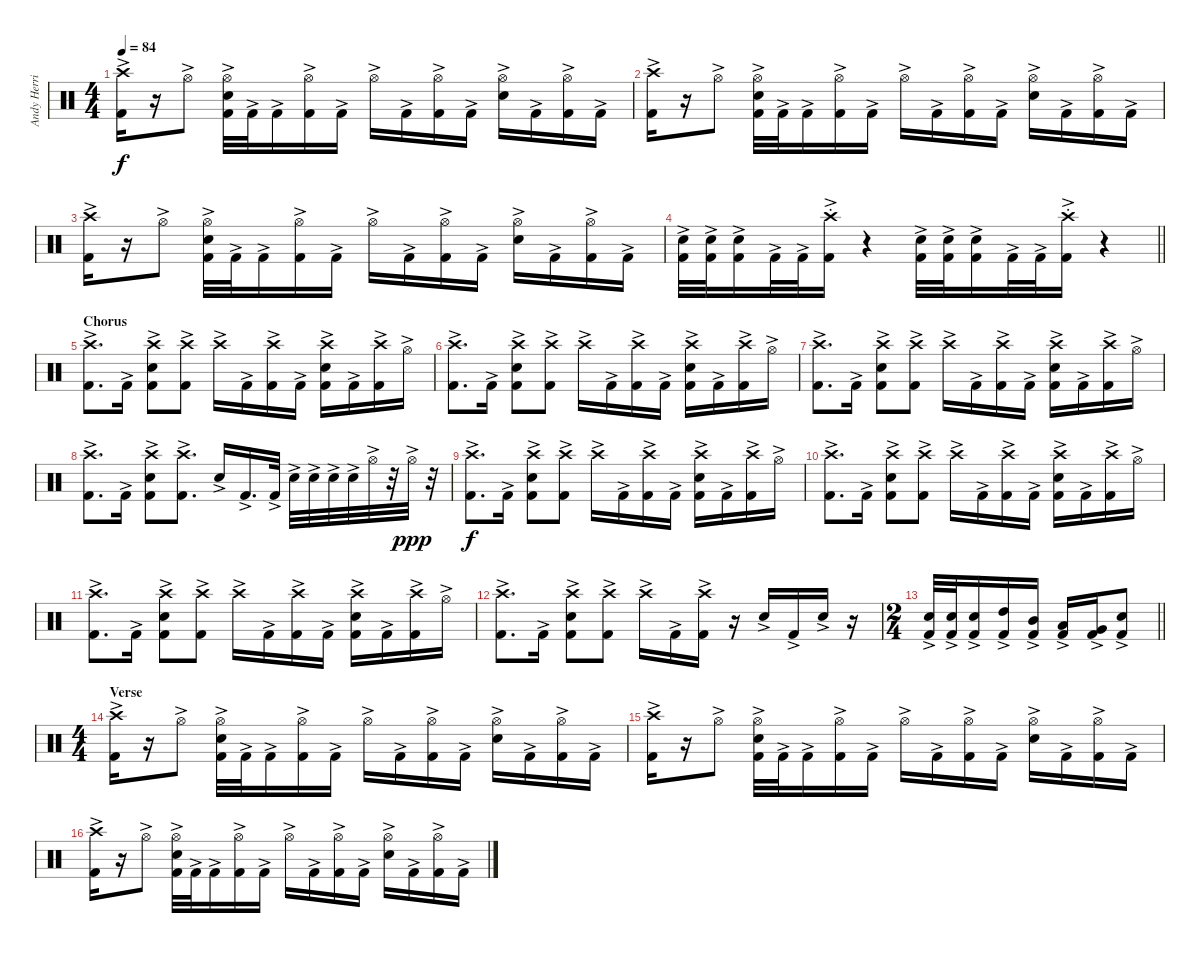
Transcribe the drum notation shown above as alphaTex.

\track ("Andy Herrick" "Andy Herri") {instrument percussion}
\staff {score}
\articulation defaults
\ts (4 4)
\tempo 84
\clef neutral
\ks c
("Crash high (hit)"{ac} "Kick (hit) 2"{ac}).16{dy f} r.16 "Hi-Hat (open)"{ac}.8 ("Hi-Hat (open)"{ac} "Electric Snare (hit)"{ac} "Kick (hit) 2"{ac}).32 "Kick (hit) 2"{ac}.32 "Kick (hit) 2"{ac}.16 ("Hi-Hat (open)"{ac} "Kick (hit) 2"{ac}).16 "Kick (hit) 2"{ac}.16 "Hi-Hat (open)"{ac}.16 "Kick (hit) 2"{ac}.16 ("Hi-Hat (open)"{ac} "Kick (hit) 2"{ac}).16 "Kick (hit) 2"{ac}.16 ("Hi-Hat (open)"{ac} "Electric Snare (hit)"{ac}).16 "Kick (hit) 2"{ac}.16 ("Hi-Hat (open)"{ac} "Kick (hit) 2"{ac}).16 "Kick (hit) 2"{ac}.16 |
("Crash high (hit)"{ac} "Kick (hit) 2"{ac}).16 r.16 "Hi-Hat (open)"{ac}.8 ("Hi-Hat (open)"{ac} "Electric Snare (hit)"{ac} "Kick (hit) 2"{ac}).32 "Kick (hit) 2"{ac}.32 "Kick (hit) 2"{ac}.16 ("Hi-Hat (open)"{ac} "Kick (hit) 2"{ac}).16 "Kick (hit) 2"{ac}.16 "Hi-Hat (open)"{ac}.16 "Kick (hit) 2"{ac}.16 ("Hi-Hat (open)"{ac} "Kick (hit) 2"{ac}).16 "Kick (hit) 2"{ac}.16 ("Hi-Hat (open)"{ac} "Electric Snare (hit)"{ac}).16 "Kick (hit) 2"{ac}.16 ("Hi-Hat (open)"{ac} "Kick (hit) 2"{ac}).16 "Kick (hit) 2"{ac}.16 |
("Crash high (hit)"{ac} "Kick (hit) 2"{ac}).16 r.16 "Hi-Hat (open)"{ac}.8 ("Hi-Hat (open)"{ac} "Electric Snare (hit)"{ac} "Kick (hit) 2"{ac}).32 "Kick (hit) 2"{ac}.32 "Kick (hit) 2"{ac}.16 ("Hi-Hat (open)"{ac} "Kick (hit) 2"{ac}).16 "Kick (hit) 2"{ac}.16 "Hi-Hat (open)"{ac}.16 "Kick (hit) 2"{ac}.16 ("Hi-Hat (open)"{ac} "Kick (hit) 2"{ac}).16 "Kick (hit) 2"{ac}.16 ("Hi-Hat (open)"{ac} "Electric Snare (hit)"{ac}).16 "Kick (hit) 2"{ac}.16 ("Hi-Hat (open)"{ac} "Kick (hit) 2"{ac}).16 "Kick (hit) 2"{ac}.16 |
\barLineRight lightlight
("Electric Snare (hit)"{ac} "Kick (hit) 2"{ac}).32 ("Electric Snare (hit)"{ac} "Kick (hit) 2"{ac}).32 ("Electric Snare (hit)"{ac} "Kick (hit) 2"{ac}).16 "Kick (hit) 2"{ac}.32 "Kick (hit) 2"{ac}.32 ("Crash high (hit)"{ac st} "Kick (hit) 2"{ac}).16 r.4 ("Electric Snare (hit)"{ac} "Kick (hit) 2"{ac}).32 ("Electric Snare (hit)"{ac} "Kick (hit) 2"{ac}).32 ("Electric Snare (hit)"{ac} "Kick (hit) 2"{ac}).16 "Kick (hit) 2"{ac}.32 "Kick (hit) 2"{ac}.32 ("Crash high (hit)"{ac st} "Kick (hit) 2"{ac}).16 r.4 |
\section ("" "Chorus")
("Crash high (hit)"{ac} "Kick (hit) 2"{ac}).8{d} "Kick (hit) 2"{ac}.16 ("Crash high (hit)"{ac} "Electric Snare (hit)"{ac} "Kick (hit) 2"{ac}).8 ("Crash high (hit)"{ac} "Kick (hit) 2"{ac}).8 "Crash high (hit)"{ac}.16 "Kick (hit) 2"{ac}.16 ("Crash high (hit)"{ac} "Kick (hit) 2"{ac}).16 "Kick (hit) 2"{ac}.16 ("Crash high (hit)"{ac} "Electric Snare (hit)"{ac} "Kick (hit) 2"{ac}).16 "Kick (hit) 2"{ac}.16 ("Crash high (hit)"{ac} "Kick (hit) 2"{ac}).16 "Hi-Hat (open)"{ac}.16 |
("Crash high (hit)"{ac} "Kick (hit) 2"{ac}).8{d} "Kick (hit) 2"{ac}.16 ("Crash high (hit)"{ac} "Electric Snare (hit)"{ac} "Kick (hit) 2"{ac}).8 ("Crash high (hit)"{ac} "Kick (hit) 2"{ac}).8 "Crash high (hit)"{ac}.16 "Kick (hit) 2"{ac}.16 ("Crash high (hit)"{ac} "Kick (hit) 2"{ac}).16 "Kick (hit) 2"{ac}.16 ("Crash high (hit)"{ac} "Electric Snare (hit)"{ac} "Kick (hit) 2"{ac}).16 "Kick (hit) 2"{ac}.16 ("Crash high (hit)"{ac} "Kick (hit) 2"{ac}).16 "Hi-Hat (open)"{ac}.16 |
("Crash high (hit)"{ac} "Kick (hit) 2"{ac}).8{d} "Kick (hit) 2"{ac}.16 ("Crash high (hit)"{ac} "Electric Snare (hit)"{ac} "Kick (hit) 2"{ac}).8 ("Crash high (hit)"{ac} "Kick (hit) 2"{ac}).8 "Crash high (hit)"{ac}.16 "Kick (hit) 2"{ac}.16 ("Crash high (hit)"{ac} "Kick (hit) 2"{ac}).16 "Kick (hit) 2"{ac}.16 ("Crash high (hit)"{ac} "Electric Snare (hit)"{ac} "Kick (hit) 2"{ac}).16 "Kick (hit) 2"{ac}.16 ("Crash high (hit)"{ac} "Kick (hit) 2"{ac}).16 "Hi-Hat (open)"{ac}.16 |
("Crash high (hit)"{ac} "Kick (hit) 2"{ac}).8{d} "Kick (hit) 2"{ac}.16 ("Crash high (hit)"{ac} "Electric Snare (hit)"{ac} "Kick (hit) 2"{ac}).8 ("Crash high (hit)"{ac} "Kick (hit) 2"{ac}).8{d} "Electric Snare (hit)"{ac}.16 "Kick (hit) 2"{ac}.16{d} "Kick (hit) 2"{ac}.32 "Electric Snare (hit)"{ac}.32 "Electric Snare (hit)"{ac}.32 "Electric Snare (hit)"{ac}.32 "Electric Snare (hit)"{ac}.32 "Hi-Hat (open)"{ac}.32 r.32 "Hi-Hat (open)"{ac}.32{dy ppp} r.32 |
("Crash high (hit)"{ac} "Kick (hit) 2"{ac}).8{d dy f} "Kick (hit) 2"{ac}.16 ("Crash high (hit)"{ac} "Electric Snare (hit)"{ac} "Kick (hit) 2"{ac}).8 ("Crash high (hit)"{ac} "Kick (hit) 2"{ac}).8 "Crash high (hit)"{ac}.16 "Kick (hit) 2"{ac}.16 ("Crash high (hit)"{ac} "Kick (hit) 2"{ac}).16 "Kick (hit) 2"{ac}.16 ("Crash high (hit)"{ac} "Electric Snare (hit)"{ac} "Kick (hit) 2"{ac}).16 "Kick (hit) 2"{ac}.16 ("Crash high (hit)"{ac} "Kick (hit) 2"{ac}).16 "Hi-Hat (open)"{ac}.16 |
("Crash high (hit)"{ac} "Kick (hit) 2"{ac}).8{d} "Kick (hit) 2"{ac}.16 ("Crash high (hit)"{ac} "Electric Snare (hit)"{ac} "Kick (hit) 2"{ac}).8 ("Crash high (hit)"{ac} "Kick (hit) 2"{ac}).8 "Crash high (hit)"{ac}.16 "Kick (hit) 2"{ac}.16 ("Crash high (hit)"{ac} "Kick (hit) 2"{ac}).16 "Kick (hit) 2"{ac}.16 ("Crash high (hit)"{ac} "Electric Snare (hit)"{ac} "Kick (hit) 2"{ac}).16 "Kick (hit) 2"{ac}.16 ("Crash high (hit)"{ac} "Kick (hit) 2"{ac}).16 "Hi-Hat (open)"{ac}.16 |
("Crash high (hit)"{ac} "Kick (hit) 2"{ac}).8{d} "Kick (hit) 2"{ac}.16 ("Crash high (hit)"{ac} "Electric Snare (hit)"{ac} "Kick (hit) 2"{ac}).8 ("Crash high (hit)"{ac} "Kick (hit) 2"{ac}).8 "Crash high (hit)"{ac}.16 "Kick (hit) 2"{ac}.16 ("Crash high (hit)"{ac} "Kick (hit) 2"{ac}).16 "Kick (hit) 2"{ac}.16 ("Crash high (hit)"{ac} "Electric Snare (hit)"{ac} "Kick (hit) 2"{ac}).16 "Kick (hit) 2"{ac}.16 ("Crash high (hit)"{ac} "Kick (hit) 2"{ac}).16 "Hi-Hat (open)"{ac}.16 |
("Crash high (hit)"{ac} "Kick (hit) 2"{ac}).8{d} "Kick (hit) 2"{ac}.16 ("Crash high (hit)"{ac} "Electric Snare (hit)"{ac} "Kick (hit) 2"{ac}).8 ("Crash high (hit)"{ac} "Kick (hit) 2"{ac}).8 "Crash high (hit)"{ac}.16 "Kick (hit) 2"{ac}.16 ("Crash high (hit)"{ac} "Kick (hit) 2"{ac}).16 r.16 "Electric Snare (hit)"{ac}.16 "Kick (hit) 2"{ac}.16 "Electric Snare (hit)"{ac}.16 r.16 |
\ts (2 4)
\barLineRight lightlight
("Electric Snare (hit)"{ac} "Kick (hit) 2"{ac}).32 ("Electric Snare (hit)"{ac} "Kick (hit) 2"{ac}).32 ("Electric Snare (hit)"{ac} "Kick (hit) 2"{ac}).16 ("High Tom (hit)"{ac} "Kick (hit) 2"{ac}).16 ("Mid Tom (hit)"{ac} "Kick (hit) 2"{ac}).16 ("Low Tom (hit)"{ac} "Kick (hit) 2"{ac}).16 ("Very Low Tom (hit)"{ac} "Kick (hit) 2"{ac}).16 ("Electric Snare (hit)"{ac} "Kick (hit) 2"{ac}).8 |
\ts (4 4)
\section ("" "Verse")
("Crash high (hit)"{ac} "Kick (hit) 2"{ac}).16 r.16 "Hi-Hat (open)"{ac}.8 ("Hi-Hat (open)"{ac} "Electric Snare (hit)"{ac} "Kick (hit) 2"{ac}).32 "Kick (hit) 2"{ac}.32 "Kick (hit) 2"{ac}.16 ("Hi-Hat (open)"{ac} "Kick (hit) 2"{ac}).16 "Kick (hit) 2"{ac}.16 "Hi-Hat (open)"{ac}.16 "Kick (hit) 2"{ac}.16 ("Hi-Hat (open)"{ac} "Kick (hit) 2"{ac}).16 "Kick (hit) 2"{ac}.16 ("Hi-Hat (open)"{ac} "Electric Snare (hit)"{ac}).16 "Kick (hit) 2"{ac}.16 ("Hi-Hat (open)"{ac} "Kick (hit) 2"{ac}).16 "Kick (hit) 2"{ac}.16 |
("Crash high (hit)"{ac} "Kick (hit) 2"{ac}).16 r.16 "Hi-Hat (open)"{ac}.8 ("Hi-Hat (open)"{ac} "Electric Snare (hit)"{ac} "Kick (hit) 2"{ac}).32 "Kick (hit) 2"{ac}.32 "Kick (hit) 2"{ac}.16 ("Hi-Hat (open)"{ac} "Kick (hit) 2"{ac}).16 "Kick (hit) 2"{ac}.16 "Hi-Hat (open)"{ac}.16 "Kick (hit) 2"{ac}.16 ("Hi-Hat (open)"{ac} "Kick (hit) 2"{ac}).16 "Kick (hit) 2"{ac}.16 ("Hi-Hat (open)"{ac} "Electric Snare (hit)"{ac}).16 "Kick (hit) 2"{ac}.16 ("Hi-Hat (open)"{ac} "Kick (hit) 2"{ac}).16 "Kick (hit) 2"{ac}.16 |
("Crash high (hit)"{ac} "Kick (hit) 2"{ac}).16 r.16 "Hi-Hat (open)"{ac}.8 ("Hi-Hat (open)"{ac} "Electric Snare (hit)"{ac} "Kick (hit) 2"{ac}).32 "Kick (hit) 2"{ac}.32 "Kick (hit) 2"{ac}.16 ("Hi-Hat (open)"{ac} "Kick (hit) 2"{ac}).16 "Kick (hit) 2"{ac}.16 "Hi-Hat (open)"{ac}.16 "Kick (hit) 2"{ac}.16 ("Hi-Hat (open)"{ac} "Kick (hit) 2"{ac}).16 "Kick (hit) 2"{ac}.16 ("Hi-Hat (open)"{ac} "Electric Snare (hit)"{ac}).16 "Kick (hit) 2"{ac}.16 ("Hi-Hat (open)"{ac} "Kick (hit) 2"{ac}).16 "Kick (hit) 2"{ac}.16
